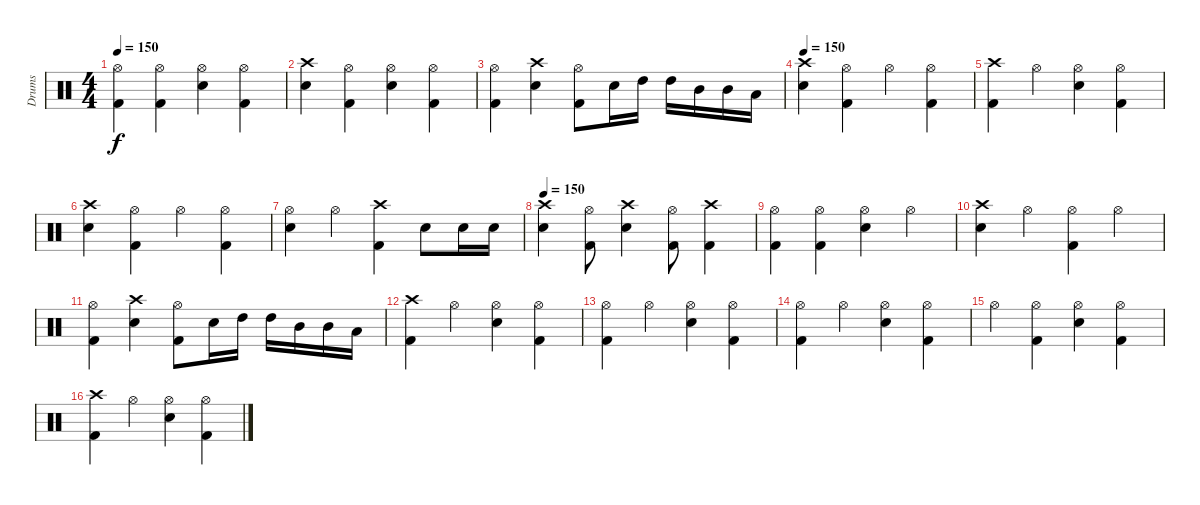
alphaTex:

\track ("Drums" "Drums") {instrument percussion}
\staff {score}
\articulation defaults
\ts (4 4)
\tempo 150
\clef neutral
\ks c
("Hi-Hat (open)" "Kick (hit) 2").4{dy f} ("Hi-Hat (open)" "Kick (hit) 2").4 ("Hi-Hat (open)" "Electric Snare (hit)").4 ("Hi-Hat (open)" "Kick (hit) 2").4 |
("Crash high (hit)" "Electric Snare (hit)").4 ("Hi-Hat (open)" "Kick (hit) 2").4 ("Hi-Hat (open)" "Electric Snare (hit)").4 ("Hi-Hat (open)" "Kick (hit) 2").4 |
("Hi-Hat (open)" "Kick (hit) 2").4 ("Crash high (hit)" "Electric Snare (hit)").4 ("Hi-Hat (open)" "Kick (hit) 2").8 "Electric Snare (hit)".16 "High Tom (hit)".16 "High Tom (hit)".16 "Mid Tom (hit)".16 "Mid Tom (hit)".16 "Low Tom (hit)".16 |
\tempo 150
("Crash high (hit)" "Electric Snare (hit)").4 ("Hi-Hat (open)" "Kick (hit) 2").4 "Hi-Hat (open)".4 ("Hi-Hat (open)" "Kick (hit) 2").4 |
("Crash high (hit)" "Kick (hit) 2").4 "Hi-Hat (open)".4 ("Hi-Hat (open)" "Electric Snare (hit)").4 ("Hi-Hat (open)" "Kick (hit) 2").4 |
("Crash high (hit)" "Electric Snare (hit)").4 ("Hi-Hat (open)" "Kick (hit) 2").4 "Hi-Hat (open)".4 ("Hi-Hat (open)" "Kick (hit) 2").4 |
("Hi-Hat (open)" "Electric Snare (hit)").4 "Hi-Hat (open)".4 ("Crash high (hit)" "Kick (hit) 2").4 "Electric Snare (hit)".8 "Electric Snare (hit)".16 "Electric Snare (hit)".16 |
\tempo 150
("Crash high (hit)" "Electric Snare (hit)").4 ("Kick (hit) 2" "Hi-Hat (open)").8 ("Crash high (hit)" "Electric Snare (hit)").4 ("Hi-Hat (open)" "Kick (hit) 2").8 ("Crash high (hit)" "Kick (hit) 2").4 |
("Hi-Hat (open)" "Kick (hit) 2").4 ("Hi-Hat (open)" "Kick (hit) 2").4 ("Hi-Hat (open)" "Electric Snare (hit)").4 "Hi-Hat (open)".4 |
("Crash high (hit)" "Electric Snare (hit)").4 "Hi-Hat (open)".4 ("Hi-Hat (open)" "Kick (hit) 2").4 "Hi-Hat (open)".4 |
("Hi-Hat (open)" "Kick (hit) 2").4 ("Crash high (hit)" "Electric Snare (hit)").4 ("Hi-Hat (open)" "Kick (hit) 2").8 "Electric Snare (hit)".16 "High Tom (hit)".16 "High Tom (hit)".16 "Mid Tom (hit)".16 "Mid Tom (hit)".16 "Low Tom (hit)".16 |
("Crash high (hit)" "Kick (hit) 2").4 "Hi-Hat (open)".4 ("Hi-Hat (open)" "Electric Snare (hit)").4 ("Hi-Hat (open)" "Kick (hit) 2").4 |
("Hi-Hat (open)" "Kick (hit) 2").4 "Hi-Hat (open)".4 ("Hi-Hat (open)" "Electric Snare (hit)").4 ("Hi-Hat (open)" "Kick (hit) 2").4 |
("Hi-Hat (open)" "Kick (hit) 2").4 "Hi-Hat (open)".4 ("Hi-Hat (open)" "Electric Snare (hit)").4 ("Hi-Hat (open)" "Kick (hit) 2").4 |
"Hi-Hat (open)".4 ("Hi-Hat (open)" "Kick (hit) 2").4 ("Hi-Hat (open)" "Electric Snare (hit)").4 ("Hi-Hat (open)" "Kick (hit) 2").4 |
("Crash high (hit)" "Kick (hit) 2").4 "Hi-Hat (open)".4 ("Hi-Hat (open)" "Electric Snare (hit)").4 ("Hi-Hat (open)" "Kick (hit) 2").4
